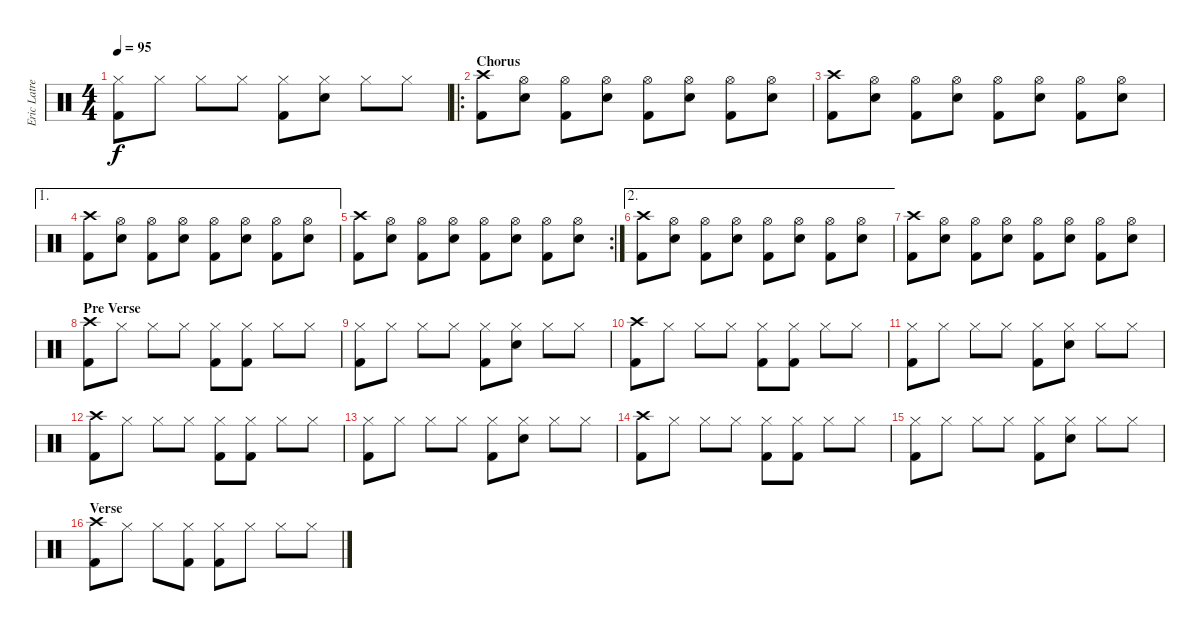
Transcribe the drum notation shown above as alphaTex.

\track ("Eric Latreille" "Eric Latre") {instrument percussion}
\staff {score}
\articulation defaults
\ts (4 4)
\tempo 95
\clef neutral
\ks c
("Hi-Hat (closed)" "Kick (hit) 2").8{dy f} "Hi-Hat (closed)".8 "Hi-Hat (closed)".8 "Hi-Hat (closed)".8 ("Hi-Hat (closed)" "Kick (hit) 2").8 ("Hi-Hat (closed)" "Snare (hit) 2").8 "Hi-Hat (closed)".8 "Hi-Hat (closed)".8 |
\ro
\section ("" "Chorus")
("Crash high (hit)" "Kick (hit) 2").8 ("Hi-Hat (open)" "Snare (hit) 2").8 ("Hi-Hat (open)" "Kick (hit) 2").8 ("Hi-Hat (open)" "Snare (hit) 2").8 ("Hi-Hat (open)" "Kick (hit) 2").8 ("Hi-Hat (open)" "Snare (hit) 2").8 ("Hi-Hat (open)" "Kick (hit) 2").8 ("Hi-Hat (open)" "Snare (hit) 2").8 |
("Crash high (hit)" "Kick (hit) 2").8 ("Hi-Hat (open)" "Snare (hit) 2").8 ("Hi-Hat (open)" "Kick (hit) 2").8 ("Hi-Hat (open)" "Snare (hit) 2").8 ("Hi-Hat (open)" "Kick (hit) 2").8 ("Hi-Hat (open)" "Snare (hit) 2").8 ("Hi-Hat (open)" "Kick (hit) 2").8 ("Hi-Hat (open)" "Snare (hit) 2").8 |
\ae 1
("Crash high (hit)" "Kick (hit) 2").8 ("Hi-Hat (open)" "Snare (hit) 2").8 ("Hi-Hat (open)" "Kick (hit) 2").8 ("Hi-Hat (open)" "Snare (hit) 2").8 ("Hi-Hat (open)" "Kick (hit) 2").8 ("Hi-Hat (open)" "Snare (hit) 2").8 ("Hi-Hat (open)" "Kick (hit) 2").8 ("Hi-Hat (open)" "Snare (hit) 2").8 |
\rc 2
("Crash high (hit)" "Kick (hit) 2").8 ("Hi-Hat (open)" "Snare (hit) 2").8 ("Hi-Hat (open)" "Kick (hit) 2").8 ("Hi-Hat (open)" "Snare (hit) 2").8 ("Hi-Hat (open)" "Kick (hit) 2").8 ("Hi-Hat (open)" "Snare (hit) 2").8 ("Hi-Hat (open)" "Kick (hit) 2").8 ("Hi-Hat (open)" "Snare (hit) 2").8 |
\ae 2
("Crash high (hit)" "Kick (hit) 2").8 ("Hi-Hat (open)" "Snare (hit) 2").8 ("Hi-Hat (open)" "Kick (hit) 2").8 ("Hi-Hat (open)" "Snare (hit) 2").8 ("Hi-Hat (open)" "Kick (hit) 2").8 ("Hi-Hat (open)" "Snare (hit) 2").8 ("Hi-Hat (open)" "Kick (hit) 2").8 ("Hi-Hat (open)" "Snare (hit) 2").8 |
("Crash high (hit)" "Kick (hit) 2").8 ("Hi-Hat (open)" "Snare (hit) 2").8 ("Hi-Hat (open)" "Kick (hit) 2").8 ("Hi-Hat (open)" "Snare (hit) 2").8 ("Hi-Hat (open)" "Kick (hit) 2").8 ("Hi-Hat (open)" "Snare (hit) 2").8 ("Hi-Hat (open)" "Kick (hit) 2").8 ("Hi-Hat (open)" "Snare (hit) 2").8 |
\section ("" "Pre Verse")
("Crash high (hit)" "Kick (hit) 2").8 "Hi-Hat (closed)".8 "Hi-Hat (closed)".8 "Hi-Hat (closed)".8 ("Hi-Hat (closed)" "Kick (hit) 2").8 ("Hi-Hat (closed)" "Kick (hit) 2").8 "Hi-Hat (closed)".8 "Hi-Hat (closed)".8 |
("Hi-Hat (closed)" "Kick (hit) 2").8 "Hi-Hat (closed)".8 "Hi-Hat (closed)".8 "Hi-Hat (closed)".8 ("Hi-Hat (closed)" "Kick (hit) 2").8 ("Hi-Hat (closed)" "Snare (hit) 2").8 "Hi-Hat (closed)".8 "Hi-Hat (closed)".8 |
("Crash high (hit)" "Kick (hit) 2").8 "Hi-Hat (closed)".8 "Hi-Hat (closed)".8 "Hi-Hat (closed)".8 ("Hi-Hat (closed)" "Kick (hit) 2").8 ("Hi-Hat (closed)" "Kick (hit) 2").8 "Hi-Hat (closed)".8 "Hi-Hat (closed)".8 |
("Hi-Hat (closed)" "Kick (hit) 2").8 "Hi-Hat (closed)".8 "Hi-Hat (closed)".8 "Hi-Hat (closed)".8 ("Hi-Hat (closed)" "Kick (hit) 2").8 ("Hi-Hat (closed)" "Snare (hit) 2").8 "Hi-Hat (closed)".8 "Hi-Hat (closed)".8 |
("Crash high (hit)" "Kick (hit) 2").8 "Hi-Hat (closed)".8 "Hi-Hat (closed)".8 "Hi-Hat (closed)".8 ("Hi-Hat (closed)" "Kick (hit) 2").8 ("Hi-Hat (closed)" "Kick (hit) 2").8 "Hi-Hat (closed)".8 "Hi-Hat (closed)".8 |
("Hi-Hat (closed)" "Kick (hit) 2").8 "Hi-Hat (closed)".8 "Hi-Hat (closed)".8 "Hi-Hat (closed)".8 ("Hi-Hat (closed)" "Kick (hit) 2").8 ("Hi-Hat (closed)" "Snare (hit) 2").8 "Hi-Hat (closed)".8 "Hi-Hat (closed)".8 |
("Crash high (hit)" "Kick (hit) 2").8 "Hi-Hat (closed)".8 "Hi-Hat (closed)".8 "Hi-Hat (closed)".8 ("Hi-Hat (closed)" "Kick (hit) 2").8 ("Hi-Hat (closed)" "Kick (hit) 2").8 "Hi-Hat (closed)".8 "Hi-Hat (closed)".8 |
("Hi-Hat (closed)" "Kick (hit) 2").8 "Hi-Hat (closed)".8 "Hi-Hat (closed)".8 "Hi-Hat (closed)".8 ("Hi-Hat (closed)" "Kick (hit) 2").8 ("Hi-Hat (closed)" "Snare (hit) 2").8 "Hi-Hat (closed)".8 "Hi-Hat (closed)".8 |
\section ("" "Verse")
("Crash high (hit)" "Kick (hit) 2").8 "Hi-Hat (closed)".8 "Hi-Hat (closed)".8 ("Hi-Hat (closed)" "Kick (hit) 2").8 ("Hi-Hat (closed)" "Kick (hit) 2").8 "Hi-Hat (closed)".8 "Hi-Hat (closed)".8 "Hi-Hat (closed)".8
